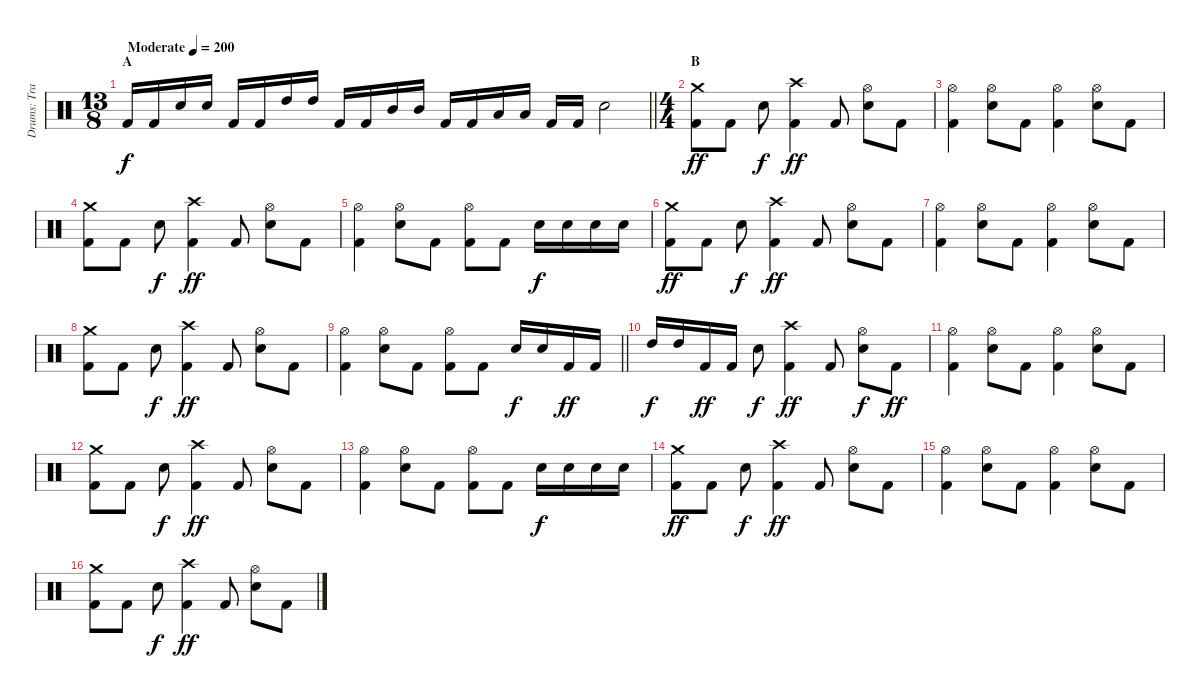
\track ("Drums: Travis Clarke" "Drums: Tra") {instrument percussion}
\staff {score}
\articulation defaults
\ts (13 8)
\section ("" "A")
\tempo (200 "Moderate")
\clef neutral
\barLineRight lightlight
\ks c "Kick (hit) 2".16{dy f} "Kick (hit) 2".16 "Snare (hit) 2".16 "Snare (hit) 2".16 "Kick (hit) 2".16 "Kick (hit) 2".16 "High Tom (hit)".16 "High Tom (hit)".16 "Kick (hit) 2".16 "Kick (hit) 2".16 "Mid Tom (hit)".16 "Mid Tom (hit)".16 "Kick (hit) 2".16 "Kick (hit) 2".16 "Low Tom (hit)".16 "Low Tom (hit)".16 "Kick (hit) 2".16 "Kick (hit) 2".16 "Snare (hit) 2".2
|
\ts (4 4)
\section ("" "B")
("Kick (hit) 2" "Crash medium (hit)").8{dy ff} "Kick (hit) 2".8 "Snare (hit) 2".8{dy f} ("Kick (hit) 2" "Crash high (hit)").4{dy ff} "Kick (hit) 2".8 ("Snare (hit) 2" "Hi-Hat (open)").8 "Kick (hit) 2".8 |
("Kick (hit) 2" "Hi-Hat (open)").4 ("Snare (hit) 2" "Hi-Hat (open)").8 "Kick (hit) 2".8 ("Kick (hit) 2" "Hi-Hat (open)").4 ("Snare (hit) 2" "Hi-Hat (open)").8 "Kick (hit) 2".8 |
("Kick (hit) 2" "Crash medium (hit)").8 "Kick (hit) 2".8 "Snare (hit) 2".8{dy f} ("Kick (hit) 2" "Crash high (hit)").4{dy ff} "Kick (hit) 2".8 ("Snare (hit) 2" "Hi-Hat (open)").8 "Kick (hit) 2".8 |
("Kick (hit) 2" "Hi-Hat (open)").4 ("Snare (hit) 2" "Hi-Hat (open)").8 "Kick (hit) 2".8 ("Kick (hit) 2" "Hi-Hat (open)").8 "Kick (hit) 2".8 "Snare (hit) 2".16{dy f} "Snare (hit) 2".16 "Snare (hit) 2".16 "Snare (hit) 2".16 |
("Kick (hit) 2" "Crash medium (hit)").8{dy ff} "Kick (hit) 2".8 "Snare (hit) 2".8{dy f} ("Kick (hit) 2" "Crash high (hit)").4{dy ff} "Kick (hit) 2".8 ("Snare (hit) 2" "Hi-Hat (open)").8 "Kick (hit) 2".8 |
("Kick (hit) 2" "Hi-Hat (open)").4 ("Snare (hit) 2" "Hi-Hat (open)").8 "Kick (hit) 2".8 ("Kick (hit) 2" "Hi-Hat (open)").4 ("Snare (hit) 2" "Hi-Hat (open)").8 "Kick (hit) 2".8 |
("Kick (hit) 2" "Crash medium (hit)").8 "Kick (hit) 2".8 "Snare (hit) 2".8{dy f} ("Kick (hit) 2" "Crash high (hit)").4{dy ff} "Kick (hit) 2".8 ("Snare (hit) 2" "Hi-Hat (open)").8 "Kick (hit) 2".8 |
\barLineRight lightlight
("Kick (hit) 2" "Hi-Hat (open)").4 ("Snare (hit) 2" "Hi-Hat (open)").8 "Kick (hit) 2".8 ("Kick (hit) 2" "Hi-Hat (open)").8 "Kick (hit) 2".8 "Snare (hit) 2".16{dy f} "Snare (hit) 2".16 "Kick (hit) 2".16{dy ff} "Kick (hit) 2".16 |
"High Tom (hit)".16{dy f} "High Tom (hit)".16 "Kick (hit) 2".16{dy ff} "Kick (hit) 2".16 "Snare (hit) 2".8{dy f} ("Kick (hit) 2" "Crash high (hit)").4{dy ff} "Kick (hit) 2".8 ("Snare (hit) 2" "Hi-Hat (open)").8{dy f} "Kick (hit) 2".8{dy ff} |
("Kick (hit) 2" "Hi-Hat (open)").4 ("Snare (hit) 2" "Hi-Hat (open)").8 "Kick (hit) 2".8 ("Kick (hit) 2" "Hi-Hat (open)").4 ("Snare (hit) 2" "Hi-Hat (open)").8 "Kick (hit) 2".8 |
("Kick (hit) 2" "Crash medium (hit)").8 "Kick (hit) 2".8 "Snare (hit) 2".8{dy f} ("Kick (hit) 2" "Crash high (hit)").4{dy ff} "Kick (hit) 2".8 ("Snare (hit) 2" "Hi-Hat (open)").8 "Kick (hit) 2".8 |
("Kick (hit) 2" "Hi-Hat (open)").4 ("Snare (hit) 2" "Hi-Hat (open)").8 "Kick (hit) 2".8 ("Kick (hit) 2" "Hi-Hat (open)").8 "Kick (hit) 2".8 "Snare (hit) 2".16{dy f} "Snare (hit) 2".16 "Snare (hit) 2".16 "Snare (hit) 2".16 |
("Kick (hit) 2" "Crash medium (hit)").8{dy ff} "Kick (hit) 2".8 "Snare (hit) 2".8{dy f} ("Kick (hit) 2" "Crash high (hit)").4{dy ff} "Kick (hit) 2".8 ("Snare (hit) 2" "Hi-Hat (open)").8 "Kick (hit) 2".8 |
("Kick (hit) 2" "Hi-Hat (open)").4 ("Snare (hit) 2" "Hi-Hat (open)").8 "Kick (hit) 2".8 ("Kick (hit) 2" "Hi-Hat (open)").4 ("Snare (hit) 2" "Hi-Hat (open)").8 "Kick (hit) 2".8 |
("Kick (hit) 2" "Crash medium (hit)").8 "Kick (hit) 2".8 "Snare (hit) 2".8{dy f} ("Kick (hit) 2" "Crash high (hit)").4{dy ff} "Kick (hit) 2".8 ("Snare (hit) 2" "Hi-Hat (open)").8 "Kick (hit) 2".8
